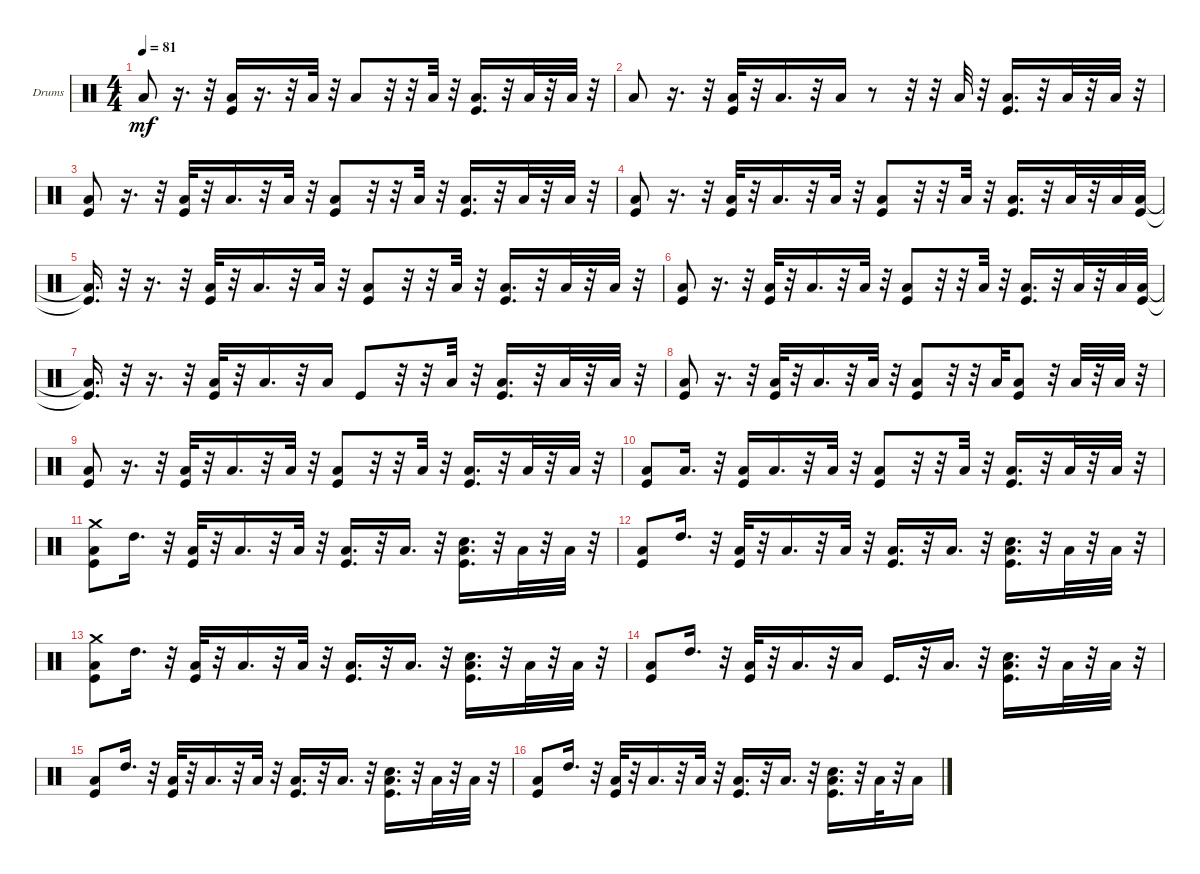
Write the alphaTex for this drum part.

\bracketExtendMode groupsimilarinstruments
\firstSystemTrackNameOrientation horizontal
\otherSystemsTrackNameOrientation horizontal
\track ("DRUMS" "Drums") {instrument percussion}
\staff {score}
\articulation defaults
\ts (4 4)
\tempo 81
\clef neutral
\ks c "Low Tom (hit)".8{dy mf}
r.16{d} r.32 ("Kick (hit)" "Low Tom (hit)").16 r.16{d} r.32 "Low Tom (hit)".32 r.32 "Low Tom (hit)".8 r.32 r.32 "Low Tom (hit)".32 r.32 ("Kick (hit)" "Low Tom (hit)").16{d} r.32 "Low Tom (hit)".32 r.32 "Low Tom (hit)".32 r.32 |
"Low Tom (hit)".8 r.16{d} r.32 ("Kick (hit)" "Low Tom (hit)").32 r.32 "Low Tom (hit)".16{d} r.32 "Low Tom (hit)".16 r.8 r.32 r.32 "Low Tom (hit)".32 r.32 ("Kick (hit)" "Low Tom (hit)").16{d} r.32 "Low Tom (hit)".32 r.32 "Low Tom (hit)".32 r.32 |
("Kick (hit)" "Low Tom (hit)").8 r.16{d} r.32 ("Kick (hit)" "Low Tom (hit)").32 r.32 "Low Tom (hit)".16{d} r.32 "Low Tom (hit)".32 r.32 ("Kick (hit)" "Low Tom (hit)").8 r.32 r.32 "Low Tom (hit)".32 r.32 ("Kick (hit)" "Low Tom (hit)").16{d} r.32 "Low Tom (hit)".32 r.32 "Low Tom (hit)".32 r.32 |
("Kick (hit)" "Low Tom (hit)").8 r.16{d} r.32 ("Kick (hit)" "Low Tom (hit)").32 r.32 "Low Tom (hit)".16{d} r.32 "Low Tom (hit)".32 r.32 ("Kick (hit)" "Low Tom (hit)").8 r.32 r.32 "Low Tom (hit)".32 r.32 ("Kick (hit)" "Low Tom (hit)").16{d} r.32 "Low Tom (hit)".32 r.32 "Low Tom (hit)".32 ("Kick (hit)" "Low Tom (hit)").32 |
("Kick (hit)"{t} "Low Tom (hit)"{t}).16{d} r.32 r.16{d} r.32 ("Kick (hit)" "Low Tom (hit)").32 r.32 "Low Tom (hit)".16{d} r.32 "Low Tom (hit)".32 r.32 ("Kick (hit)" "Low Tom (hit)").8 r.32 r.32 "Low Tom (hit)".32 r.32 ("Kick (hit)" "Low Tom (hit)").16{d} r.32 "Low Tom (hit)".32 r.32 "Low Tom (hit)".32 r.32 |
("Kick (hit)" "Low Tom (hit)").8 r.16{d} r.32 ("Kick (hit)" "Low Tom (hit)").32 r.32 "Low Tom (hit)".16{d} r.32 "Low Tom (hit)".32 r.32 ("Kick (hit)" "Low Tom (hit)").8 r.32 r.32 "Low Tom (hit)".32 r.32 ("Kick (hit)" "Low Tom (hit)").16{d} r.32 "Low Tom (hit)".32 r.32 "Low Tom (hit)".32 ("Kick (hit)" "Low Tom (hit)").32 |
("Kick (hit)"{t} "Low Tom (hit)"{t}).16{d} r.32 r.16{d} r.32 ("Kick (hit)" "Low Tom (hit)").32 r.32 "Low Tom (hit)".16{d} r.32 "Low Tom (hit)".16 "Kick (hit)".8 r.32 r.32 "Low Tom (hit)".32 r.32 ("Kick (hit)" "Low Tom (hit)").16{d} r.32 "Low Tom (hit)".32 r.32 "Low Tom (hit)".32 r.32 |
("Kick (hit)" "Low Tom (hit)").8 r.16{d} r.32 ("Kick (hit)" "Low Tom (hit)").32 r.32 "Low Tom (hit)".16{d} r.32 "Low Tom (hit)".32 r.32 ("Kick (hit)" "Low Tom (hit)").8 r.32 r.32 "Low Tom (hit)".32 ("Kick (hit)" "Low Tom (hit)").8 r.32 "Low Tom (hit)".32 r.32 "Low Tom (hit)".32 r.32 |
("Kick (hit)" "Low Tom (hit)").8 r.16{d} r.32 ("Kick (hit)" "Low Tom (hit)").32 r.32 "Low Tom (hit)".16{d} r.32 "Low Tom (hit)".32 r.32 ("Kick (hit)" "Low Tom (hit)").8 r.32 r.32 "Low Tom (hit)".32 r.32 ("Kick (hit)" "Low Tom (hit)").16{d} r.32 "Low Tom (hit)".32 r.32 "Low Tom (hit)".32 r.32 |
("Kick (hit)" "Low Tom (hit)").8 "Low Tom (hit)".16{d} r.32 ("Kick (hit)" "Low Tom (hit)").16 "Low Tom (hit)".16{d} r.32 "Low Tom (hit)".32 r.32 ("Kick (hit)" "Low Tom (hit)").8 r.32 r.32 "Low Tom (hit)".32 r.32 ("Kick (hit)" "Low Tom (hit)").16{d} r.32 "Low Tom (hit)".32 r.32 "Low Tom (hit)".32 r.32 |
("Kick (hit)" "Low Tom (hit)" "Crash medium (hit)").8 "High Tom (hit)".16{d} r.32 ("Kick (hit)" "Low Tom (hit)").32 r.32 "Low Tom (hit)".16{d} r.32 "Low Tom (hit)".32 r.32 ("Kick (hit)" "Low Tom (hit)").16{d} r.32 "Low Tom (hit)".16{d} r.32 ("Kick (hit)" "Snare (hit) 2" "Low Tom (hit)").16{d} r.32 "Low Tom (hit)".32 r.32 "Low Tom (hit)".32 r.32 |
("Kick (hit)" "Low Tom (hit)").8 "High Tom (hit)".16{d} r.32 ("Kick (hit)" "Low Tom (hit)").32 r.32 "Low Tom (hit)".16{d} r.32 "Low Tom (hit)".32 r.32 ("Kick (hit)" "Low Tom (hit)").16{d} r.32 "Low Tom (hit)".16{d} r.32 ("Kick (hit)" "Snare (hit) 2" "Low Tom (hit)").16{d} r.32 "Low Tom (hit)".32 r.32 "Low Tom (hit)".32 r.32 |
("Kick (hit)" "Low Tom (hit)" "Crash medium (hit)").8 "High Tom (hit)".16{d} r.32 ("Kick (hit)" "Low Tom (hit)").32 r.32 "Low Tom (hit)".16{d} r.32 "Low Tom (hit)".32 r.32 ("Kick (hit)" "Low Tom (hit)").16{d} r.32 "Low Tom (hit)".16{d} r.32 ("Kick (hit)" "Snare (hit) 2" "Low Tom (hit)").16{d} r.32 "Low Tom (hit)".32 r.32 "Low Tom (hit)".32 r.32 |
("Kick (hit)" "Low Tom (hit)").8 "High Tom (hit)".16{d} r.32 ("Kick (hit)" "Low Tom (hit)").32 r.32 "Low Tom (hit)".16{d} r.32 "Low Tom (hit)".16 "Kick (hit)".16{d} r.32 "Low Tom (hit)".16{d} r.32 ("Kick (hit)" "Snare (hit) 2" "Low Tom (hit)").16{d} r.32 "Low Tom (hit)".32 r.32 "Low Tom (hit)".32 r.32 |
("Kick (hit)" "Low Tom (hit)").8 "High Tom (hit)".16{d} r.32 ("Kick (hit)" "Low Tom (hit)").32 r.32 "Low Tom (hit)".16{d} r.32 "Low Tom (hit)".32 r.32 ("Kick (hit)" "Low Tom (hit)").16{d} r.32 "Low Tom (hit)".16{d} r.32 ("Kick (hit)" "Snare (hit) 2" "Low Tom (hit)").16{d} r.32 "Low Tom (hit)".32 r.32 "Low Tom (hit)".32 r.32 |
("Kick (hit)" "Low Tom (hit)").8 "High Tom (hit)".16{d} r.32 ("Kick (hit)" "Low Tom (hit)").32 r.32 "Low Tom (hit)".16{d} r.32 "Low Tom (hit)".32 r.32 ("Kick (hit)" "Low Tom (hit)").16{d} r.32 "Low Tom (hit)".16{d} r.32 ("Kick (hit)" "Snare (hit) 2" "Low Tom (hit)").16{d} r.32 "Low Tom (hit)".32 r.32 "Low Tom (hit)".16
